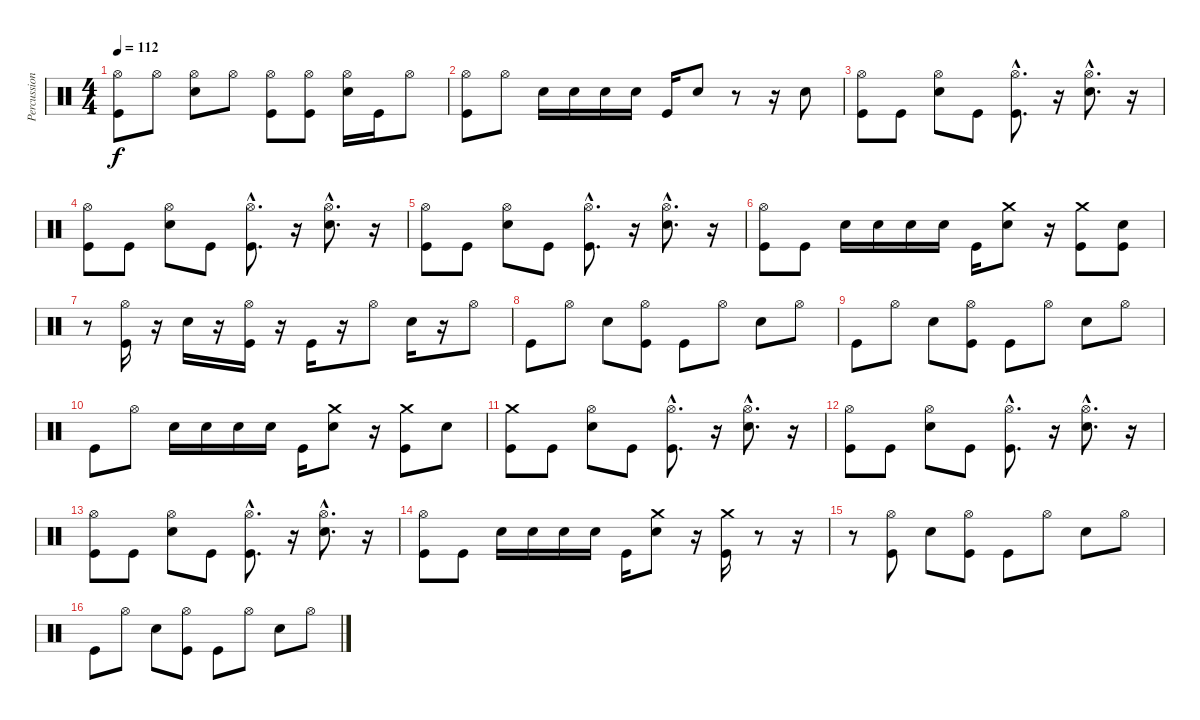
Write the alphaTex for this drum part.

\track ("Percussion" "Percussion") {instrument percussion}
\staff {score}
\articulation defaults
\ts (4 4)
\tempo 112
\clef neutral
\ks c
("Hi-Hat (open)" "Kick (hit)").8{dy f} "Hi-Hat (open)".8 ("Hi-Hat (open)" "Electric Snare (hit)").8 "Hi-Hat (open)".8 ("Hi-Hat (open)" "Kick (hit)").8 ("Hi-Hat (open)" "Kick (hit)").8 ("Hi-Hat (open)" "Electric Snare (hit)").16 "Kick (hit)".16 "Hi-Hat (open)".8 |
("Hi-Hat (open)" "Kick (hit)").8 "Hi-Hat (open)".8 "Electric Snare (hit)".16 "Electric Snare (hit)".16 "Electric Snare (hit)".16 "Electric Snare (hit)".16 "Kick (hit)".16 "Electric Snare (hit)".8 r.8 r.16 "Electric Snare (hit)".8 |
("Hi-Hat (open)" "Kick (hit)").8 "Kick (hit)".8 ("Hi-Hat (open)" "Electric Snare (hit)").8 "Kick (hit)".8 ("Hi-Hat (open)"{hac} "Kick (hit)"{hac}).8{d} r.16 ("Hi-Hat (open)"{hac} "Electric Snare (hit)"{hac}).8{d} r.16 |
("Hi-Hat (open)" "Kick (hit)").8 "Kick (hit)".8 ("Hi-Hat (open)" "Electric Snare (hit)").8 "Kick (hit)".8 ("Hi-Hat (open)"{hac} "Kick (hit)"{hac}).8{d} r.16 ("Hi-Hat (open)"{hac} "Electric Snare (hit)"{hac}).8{d} r.16 |
("Hi-Hat (open)" "Kick (hit)").8 "Kick (hit)".8 ("Hi-Hat (open)" "Electric Snare (hit)").8 "Kick (hit)".8 ("Hi-Hat (open)"{hac} "Kick (hit)"{hac}).8{d} r.16 ("Hi-Hat (open)"{hac} "Electric Snare (hit)"{hac}).8{d} r.16 |
("Hi-Hat (open)" "Kick (hit)").8 "Kick (hit)".8 "Electric Snare (hit)".16 "Electric Snare (hit)".16 "Electric Snare (hit)".16 "Electric Snare (hit)".16 "Kick (hit)".16 ("Electric Snare (hit)" "Crash medium (hit)").8 r.16 ("Kick (hit)" "Crash medium (hit)").8 ("Electric Snare (hit)" "Kick (hit)").8 |
r.8 ("Hi-Hat (open)" "Kick (hit)").16 r.16 "Electric Snare (hit)".16 r.16 ("Hi-Hat (open)" "Kick (hit)").16 r.16 "Kick (hit)".16 r.16 "Hi-Hat (open)".8 "Electric Snare (hit)".16 r.16 "Hi-Hat (open)".8 |
"Kick (hit)".8 "Hi-Hat (open)".8 "Electric Snare (hit)".8 ("Hi-Hat (open)" "Kick (hit)").8 "Kick (hit)".8 "Hi-Hat (open)".8 "Electric Snare (hit)".8 "Hi-Hat (open)".8 |
"Kick (hit)".8 "Hi-Hat (open)".8 "Electric Snare (hit)".8 ("Hi-Hat (open)" "Kick (hit)").8 "Kick (hit)".8 "Hi-Hat (open)".8 "Electric Snare (hit)".8 "Hi-Hat (open)".8 |
"Kick (hit)".8 "Hi-Hat (open)".8 "Electric Snare (hit)".16 "Electric Snare (hit)".16 "Electric Snare (hit)".16 "Electric Snare (hit)".16 "Kick (hit)".16 ("Electric Snare (hit)" "Crash medium (hit)").8 r.16 ("Kick (hit)" "Crash medium (hit)").8 "Electric Snare (hit)".8 |
("Kick (hit)" "Crash medium (hit)").8 "Kick (hit)".8 ("Hi-Hat (open)" "Electric Snare (hit)").8 "Kick (hit)".8 ("Hi-Hat (open)"{hac} "Kick (hit)"{hac}).8{d} r.16 ("Hi-Hat (open)"{hac} "Electric Snare (hit)"{hac}).8{d} r.16 |
("Hi-Hat (open)" "Kick (hit)").8 "Kick (hit)".8 ("Hi-Hat (open)" "Electric Snare (hit)").8 "Kick (hit)".8 ("Hi-Hat (open)"{hac} "Kick (hit)"{hac}).8{d} r.16 ("Hi-Hat (open)"{hac} "Electric Snare (hit)"{hac}).8{d} r.16 |
("Hi-Hat (open)" "Kick (hit)").8 "Kick (hit)".8 ("Hi-Hat (open)" "Electric Snare (hit)").8 "Kick (hit)".8 ("Hi-Hat (open)"{hac} "Kick (hit)"{hac}).8{d} r.16 ("Hi-Hat (open)"{hac} "Electric Snare (hit)"{hac}).8{d} r.16 |
("Hi-Hat (open)" "Kick (hit)").8 "Kick (hit)".8 "Electric Snare (hit)".16 "Electric Snare (hit)".16 "Electric Snare (hit)".16 "Electric Snare (hit)".16 "Kick (hit)".16 ("Electric Snare (hit)" "Crash medium (hit)").8 r.16 ("Kick (hit)" "Crash medium (hit)").16 r.8 r.16 |
r.8 ("Hi-Hat (open)" "Kick (hit)").8 "Electric Snare (hit)".8 ("Hi-Hat (open)" "Kick (hit)").8 "Kick (hit)".8 "Hi-Hat (open)".8 "Electric Snare (hit)".8 "Hi-Hat (open)".8 |
"Kick (hit)".8 "Hi-Hat (open)".8 "Electric Snare (hit)".8 ("Hi-Hat (open)" "Kick (hit)").8 "Kick (hit)".8 "Hi-Hat (open)".8 "Electric Snare (hit)".8 "Hi-Hat (open)".8
